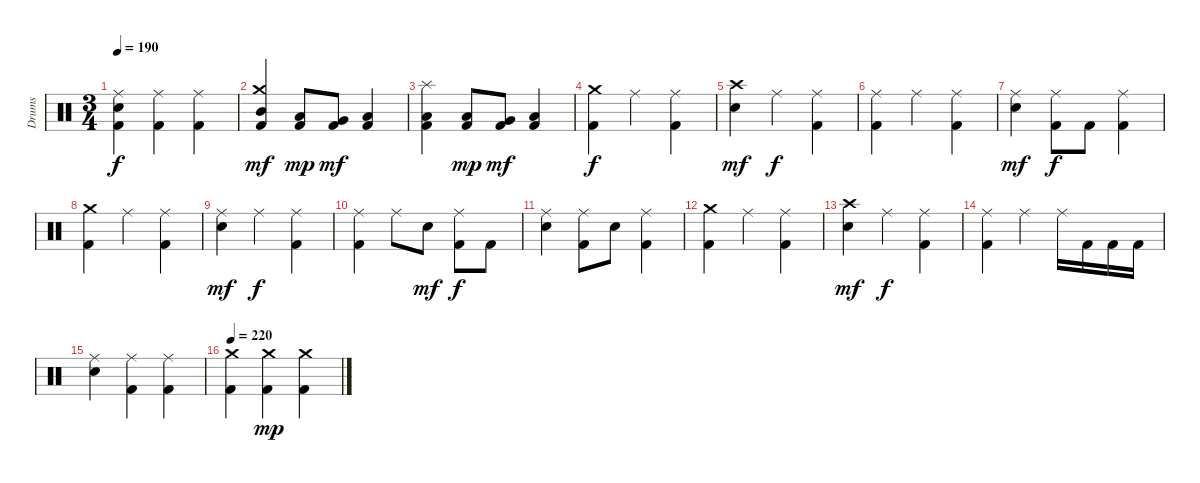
\track ("Drums" "Drums") {instrument percussion}
\staff {score}
\articulation defaults
\ts (3 4)
\tempo 190
\clef neutral
\ks c
("Ride (middle)" "Electric Snare (hit)" "Kick (hit) 2").4{dy f} ("Ride (middle)" "Kick (hit) 2").4 ("Ride (middle)" "Kick (hit) 2").4 |
("Crash medium (hit)" "Mid Tom (hit)" "Kick (hit) 2").4{dy mf} ("Low Tom (hit)" "Kick (hit) 2").8{dy mp} ("Very Low Tom (hit)" "Kick (hit) 2").8{dy mf} ("Low Tom (hit)" "Kick (hit) 2").4 |
("Splash (hit)" "Low Tom (hit)" "Kick (hit) 2").4 ("Low Tom (hit)" "Kick (hit) 2").8{dy mp} ("Very Low Tom (hit)" "Kick (hit) 2").8{dy mf} ("Low Floor Tom (hit)" "Kick (hit) 2").4 |
("Crash medium (hit)" "Kick (hit) 2").4{dy f} "Ride (middle)".4 ("Ride (middle)" "Kick (hit) 2").4 |
("Crash high (hit)" "Electric Snare (hit)").4{dy mf} "Ride (middle)".4{dy f} ("Ride (middle)" "Kick (hit) 2").4 |
("Ride (middle)" "Kick (hit) 2").4 "Ride (middle)".4 ("Ride (middle)" "Kick (hit) 2").4 |
("Ride (middle)" "Electric Snare (hit)").4{dy mf} ("Ride (middle)" "Kick (hit) 2").8{dy f} "Kick (hit) 2".8 ("Ride (middle)" "Kick (hit) 2").4 |
("Crash medium (hit)" "Kick (hit) 2").4 "Ride (middle)".4 ("Ride (middle)" "Kick (hit) 2").4 |
("Ride (middle)" "Electric Snare (hit)").4{dy mf} "Ride (middle)".4{dy f} ("Ride (middle)" "Kick (hit) 2").4 |
("Ride (middle)" "Kick (hit) 2").4 "Ride (middle)".8 "Electric Snare (hit)".8{dy mf} ("Ride (middle)" "Kick (hit) 2").8{dy f} "Kick (hit) 2".8 |
("Ride (middle)" "Electric Snare (hit)").4 ("Ride (middle)" "Kick (hit) 2").8 "Electric Snare (hit)".8 ("Ride (middle)" "Kick (hit) 2").4 |
("Crash medium (hit)" "Kick (hit) 2").4 "Ride (middle)".4 ("Ride (middle)" "Kick (hit) 2").4 |
("Crash high (hit)" "Electric Snare (hit)").4{dy mf} "Ride (middle)".4{dy f} ("Ride (middle)" "Kick (hit) 2").4 |
("Ride (middle)" "Kick (hit) 2").4 "Ride (middle)".4 "Ride (middle)".16 "Kick (hit) 2".16 "Kick (hit) 2".16 "Kick (hit) 2".16 |
("Ride (middle)" "Electric Snare (hit)").4 ("Ride (middle)" "Kick (hit) 2").4 ("Ride (middle)" "Kick (hit) 2").4 |
\tempo 220
("Crash medium (hit)" "Kick (hit) 2").4 ("Crash medium (hit)" "Kick (hit) 2").4{dy mp} ("Crash medium (hit)" "Kick (hit) 2").4
